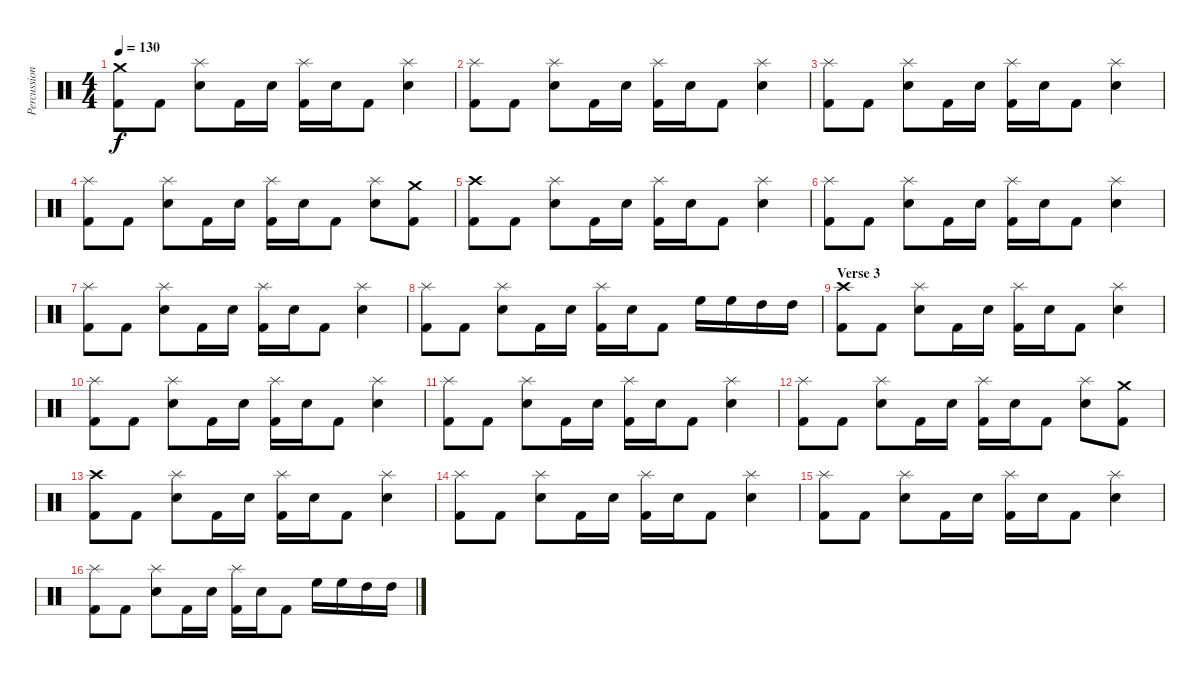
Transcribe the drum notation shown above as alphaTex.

\track ("Percussion" "Percussion") {instrument percussion}
\staff {score}
\articulation defaults
\ts (4 4)
\tempo 130
\clef neutral
\ks c
("Crash medium (hit)" "Kick (hit) 2").8{dy f} "Kick (hit) 2".8 ("Splash (hit)" "Electric Snare (hit)").8 "Kick (hit) 2".16 "Electric Snare (hit)".16 ("Splash (hit)" "Kick (hit) 2").16 "Electric Snare (hit)".16 "Kick (hit) 2".8 ("Splash (hit)" "Electric Snare (hit)").4 |
("Splash (hit)" "Kick (hit) 2").8 "Kick (hit) 2".8 ("Splash (hit)" "Electric Snare (hit)").8 "Kick (hit) 2".16 "Electric Snare (hit)".16 ("Splash (hit)" "Kick (hit) 2").16 "Electric Snare (hit)".16 "Kick (hit) 2".8 ("Splash (hit)" "Electric Snare (hit)").4 |
("Splash (hit)" "Kick (hit) 2").8 "Kick (hit) 2".8 ("Splash (hit)" "Electric Snare (hit)").8 "Kick (hit) 2".16 "Electric Snare (hit)".16 ("Splash (hit)" "Kick (hit) 2").16 "Electric Snare (hit)".16 "Kick (hit) 2".8 ("Splash (hit)" "Electric Snare (hit)").4 |
("Splash (hit)" "Kick (hit) 2").8 "Kick (hit) 2".8 ("Splash (hit)" "Electric Snare (hit)").8 "Kick (hit) 2".16 "Electric Snare (hit)".16 ("Splash (hit)" "Kick (hit) 2").16 "Electric Snare (hit)".16 "Kick (hit) 2".8 ("Splash (hit)" "Electric Snare (hit)").8 ("Crash medium (hit)" "Kick (hit) 2").8 |
("Crash high (hit)" "Kick (hit) 2").8 "Kick (hit) 2".8 ("Splash (hit)" "Electric Snare (hit)").8 "Kick (hit) 2".16 "Electric Snare (hit)".16 ("Splash (hit)" "Kick (hit) 2").16 "Electric Snare (hit)".16 "Kick (hit) 2".8 ("Splash (hit)" "Electric Snare (hit)").4 |
("Splash (hit)" "Kick (hit) 2").8 "Kick (hit) 2".8 ("Splash (hit)" "Electric Snare (hit)").8 "Kick (hit) 2".16 "Electric Snare (hit)".16 ("Splash (hit)" "Kick (hit) 2").16 "Electric Snare (hit)".16 "Kick (hit) 2".8 ("Splash (hit)" "Electric Snare (hit)").4 |
("Splash (hit)" "Kick (hit) 2").8 "Kick (hit) 2".8 ("Splash (hit)" "Electric Snare (hit)").8 "Kick (hit) 2".16 "Electric Snare (hit)".16 ("Splash (hit)" "Kick (hit) 2").16 "Electric Snare (hit)".16 "Kick (hit) 2".8 ("Splash (hit)" "Electric Snare (hit)").4 |
("Splash (hit)" "Kick (hit) 2").8 "Kick (hit) 2".8 ("Splash (hit)" "Electric Snare (hit)").8 "Kick (hit) 2".16 "Electric Snare (hit)".16 ("Splash (hit)" "Kick (hit) 2").16 "Electric Snare (hit)".16 "Kick (hit) 2".8 "High Floor Tom (hit)".16 "High Floor Tom (hit)".16 "High Tom (hit)".16 "High Tom (hit)".16 |
\section ("" "Verse 3")
("Crash high (hit)" "Kick (hit) 2").8 "Kick (hit) 2".8 ("Splash (hit)" "Electric Snare (hit)").8 "Kick (hit) 2".16 "Electric Snare (hit)".16 ("Splash (hit)" "Kick (hit) 2").16 "Electric Snare (hit)".16 "Kick (hit) 2".8 ("Splash (hit)" "Electric Snare (hit)").4 |
("Splash (hit)" "Kick (hit) 2").8 "Kick (hit) 2".8 ("Splash (hit)" "Electric Snare (hit)").8 "Kick (hit) 2".16 "Electric Snare (hit)".16 ("Splash (hit)" "Kick (hit) 2").16 "Electric Snare (hit)".16 "Kick (hit) 2".8 ("Splash (hit)" "Electric Snare (hit)").4 |
("Splash (hit)" "Kick (hit) 2").8 "Kick (hit) 2".8 ("Splash (hit)" "Electric Snare (hit)").8 "Kick (hit) 2".16 "Electric Snare (hit)".16 ("Splash (hit)" "Kick (hit) 2").16 "Electric Snare (hit)".16 "Kick (hit) 2".8 ("Splash (hit)" "Electric Snare (hit)").4 |
("Splash (hit)" "Kick (hit) 2").8 "Kick (hit) 2".8 ("Splash (hit)" "Electric Snare (hit)").8 "Kick (hit) 2".16 "Electric Snare (hit)".16 ("Splash (hit)" "Kick (hit) 2").16 "Electric Snare (hit)".16 "Kick (hit) 2".8 ("Splash (hit)" "Electric Snare (hit)").8 ("Crash medium (hit)" "Kick (hit) 2").8 |
("Crash high (hit)" "Kick (hit) 2").8 "Kick (hit) 2".8 ("Splash (hit)" "Electric Snare (hit)").8 "Kick (hit) 2".16 "Electric Snare (hit)".16 ("Splash (hit)" "Kick (hit) 2").16 "Electric Snare (hit)".16 "Kick (hit) 2".8 ("Splash (hit)" "Electric Snare (hit)").4 |
("Splash (hit)" "Kick (hit) 2").8 "Kick (hit) 2".8 ("Splash (hit)" "Electric Snare (hit)").8 "Kick (hit) 2".16 "Electric Snare (hit)".16 ("Splash (hit)" "Kick (hit) 2").16 "Electric Snare (hit)".16 "Kick (hit) 2".8 ("Splash (hit)" "Electric Snare (hit)").4 |
("Splash (hit)" "Kick (hit) 2").8 "Kick (hit) 2".8 ("Splash (hit)" "Electric Snare (hit)").8 "Kick (hit) 2".16 "Electric Snare (hit)".16 ("Splash (hit)" "Kick (hit) 2").16 "Electric Snare (hit)".16 "Kick (hit) 2".8 ("Splash (hit)" "Electric Snare (hit)").4 |
("Splash (hit)" "Kick (hit) 2").8 "Kick (hit) 2".8 ("Splash (hit)" "Electric Snare (hit)").8 "Kick (hit) 2".16 "Electric Snare (hit)".16 ("Splash (hit)" "Kick (hit) 2").16 "Electric Snare (hit)".16 "Kick (hit) 2".8 "High Floor Tom (hit)".16 "High Floor Tom (hit)".16 "High Tom (hit)".16 "High Tom (hit)".16
